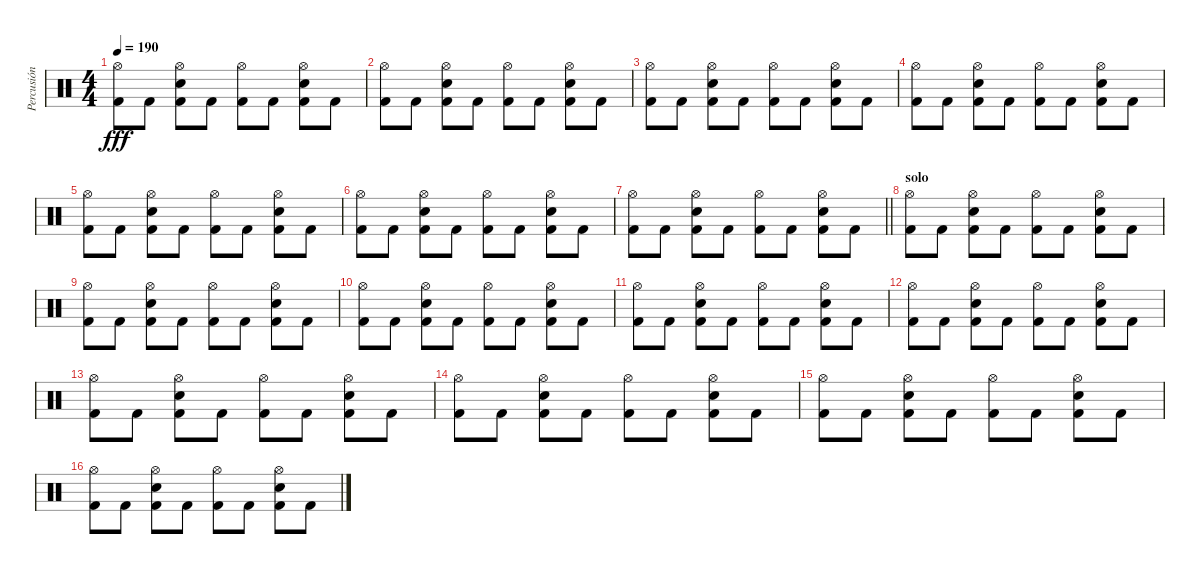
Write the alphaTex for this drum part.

\track ("Percusión" "Percusión") {instrument percussion}
\staff {score}
\articulation defaults
\ts (4 4)
\tempo 190
\clef neutral
\ks c
("Hi-Hat (open)" "Kick (hit) 2").8{dy fff} "Kick (hit) 2".8 ("Hi-Hat (open)" "Electric Snare (hit)" "Kick (hit) 2").8 "Kick (hit) 2".8 ("Hi-Hat (open)" "Kick (hit) 2").8 "Kick (hit) 2".8 ("Hi-Hat (open)" "Electric Snare (hit)" "Kick (hit) 2").8 "Kick (hit) 2".8 |
("Hi-Hat (open)" "Kick (hit) 2").8 "Kick (hit) 2".8 ("Hi-Hat (open)" "Electric Snare (hit)" "Kick (hit) 2").8 "Kick (hit) 2".8 ("Hi-Hat (open)" "Kick (hit) 2").8 "Kick (hit) 2".8 ("Hi-Hat (open)" "Electric Snare (hit)" "Kick (hit) 2").8 "Kick (hit) 2".8 |
("Hi-Hat (open)" "Kick (hit) 2").8 "Kick (hit) 2".8 ("Hi-Hat (open)" "Electric Snare (hit)" "Kick (hit) 2").8 "Kick (hit) 2".8 ("Hi-Hat (open)" "Kick (hit) 2").8 "Kick (hit) 2".8 ("Hi-Hat (open)" "Electric Snare (hit)" "Kick (hit) 2").8 "Kick (hit) 2".8 |
("Hi-Hat (open)" "Kick (hit) 2").8 "Kick (hit) 2".8 ("Hi-Hat (open)" "Electric Snare (hit)" "Kick (hit) 2").8 "Kick (hit) 2".8 ("Hi-Hat (open)" "Kick (hit) 2").8 "Kick (hit) 2".8 ("Hi-Hat (open)" "Electric Snare (hit)" "Kick (hit) 2").8 "Kick (hit) 2".8 |
("Hi-Hat (open)" "Kick (hit) 2").8 "Kick (hit) 2".8 ("Hi-Hat (open)" "Electric Snare (hit)" "Kick (hit) 2").8 "Kick (hit) 2".8 ("Hi-Hat (open)" "Kick (hit) 2").8 "Kick (hit) 2".8 ("Hi-Hat (open)" "Electric Snare (hit)" "Kick (hit) 2").8 "Kick (hit) 2".8 |
("Hi-Hat (open)" "Kick (hit) 2").8 "Kick (hit) 2".8 ("Hi-Hat (open)" "Electric Snare (hit)" "Kick (hit) 2").8 "Kick (hit) 2".8 ("Hi-Hat (open)" "Kick (hit) 2").8 "Kick (hit) 2".8 ("Hi-Hat (open)" "Electric Snare (hit)" "Kick (hit) 2").8 "Kick (hit) 2".8 |
\barLineRight lightlight
("Hi-Hat (open)" "Kick (hit) 2").8 "Kick (hit) 2".8 ("Hi-Hat (open)" "Electric Snare (hit)" "Kick (hit) 2").8 "Kick (hit) 2".8 ("Hi-Hat (open)" "Kick (hit) 2").8 "Kick (hit) 2".8 ("Hi-Hat (open)" "Electric Snare (hit)" "Kick (hit) 2").8 "Kick (hit) 2".8 |
\section ("" "solo")
("Hi-Hat (open)" "Kick (hit) 2").8 "Kick (hit) 2".8 ("Hi-Hat (open)" "Electric Snare (hit)" "Kick (hit) 2").8 "Kick (hit) 2".8 ("Hi-Hat (open)" "Kick (hit) 2").8 "Kick (hit) 2".8 ("Hi-Hat (open)" "Electric Snare (hit)" "Kick (hit) 2").8 "Kick (hit) 2".8 |
("Hi-Hat (open)" "Kick (hit) 2").8 "Kick (hit) 2".8 ("Hi-Hat (open)" "Electric Snare (hit)" "Kick (hit) 2").8 "Kick (hit) 2".8 ("Hi-Hat (open)" "Kick (hit) 2").8 "Kick (hit) 2".8 ("Hi-Hat (open)" "Electric Snare (hit)" "Kick (hit) 2").8 "Kick (hit) 2".8 |
("Hi-Hat (open)" "Kick (hit) 2").8 "Kick (hit) 2".8 ("Hi-Hat (open)" "Electric Snare (hit)" "Kick (hit) 2").8 "Kick (hit) 2".8 ("Hi-Hat (open)" "Kick (hit) 2").8 "Kick (hit) 2".8 ("Hi-Hat (open)" "Electric Snare (hit)" "Kick (hit) 2").8 "Kick (hit) 2".8 |
("Hi-Hat (open)" "Kick (hit) 2").8 "Kick (hit) 2".8 ("Hi-Hat (open)" "Electric Snare (hit)" "Kick (hit) 2").8 "Kick (hit) 2".8 ("Hi-Hat (open)" "Kick (hit) 2").8 "Kick (hit) 2".8 ("Hi-Hat (open)" "Electric Snare (hit)" "Kick (hit) 2").8 "Kick (hit) 2".8 |
("Hi-Hat (open)" "Kick (hit) 2").8 "Kick (hit) 2".8 ("Hi-Hat (open)" "Electric Snare (hit)" "Kick (hit) 2").8 "Kick (hit) 2".8 ("Hi-Hat (open)" "Kick (hit) 2").8 "Kick (hit) 2".8 ("Hi-Hat (open)" "Electric Snare (hit)" "Kick (hit) 2").8 "Kick (hit) 2".8 |
("Hi-Hat (open)" "Kick (hit) 2").8 "Kick (hit) 2".8 ("Hi-Hat (open)" "Electric Snare (hit)" "Kick (hit) 2").8 "Kick (hit) 2".8 ("Hi-Hat (open)" "Kick (hit) 2").8 "Kick (hit) 2".8 ("Hi-Hat (open)" "Electric Snare (hit)" "Kick (hit) 2").8 "Kick (hit) 2".8 |
("Hi-Hat (open)" "Kick (hit) 2").8 "Kick (hit) 2".8 ("Hi-Hat (open)" "Electric Snare (hit)" "Kick (hit) 2").8 "Kick (hit) 2".8 ("Hi-Hat (open)" "Kick (hit) 2").8 "Kick (hit) 2".8 ("Hi-Hat (open)" "Electric Snare (hit)" "Kick (hit) 2").8 "Kick (hit) 2".8 |
("Hi-Hat (open)" "Kick (hit) 2").8 "Kick (hit) 2".8 ("Hi-Hat (open)" "Electric Snare (hit)" "Kick (hit) 2").8 "Kick (hit) 2".8 ("Hi-Hat (open)" "Kick (hit) 2").8 "Kick (hit) 2".8 ("Hi-Hat (open)" "Electric Snare (hit)" "Kick (hit) 2").8 "Kick (hit) 2".8 |
("Hi-Hat (open)" "Kick (hit) 2").8 "Kick (hit) 2".8 ("Hi-Hat (open)" "Electric Snare (hit)" "Kick (hit) 2").8 "Kick (hit) 2".8 ("Hi-Hat (open)" "Kick (hit) 2").8 "Kick (hit) 2".8 ("Hi-Hat (open)" "Electric Snare (hit)" "Kick (hit) 2").8 "Kick (hit) 2".8
